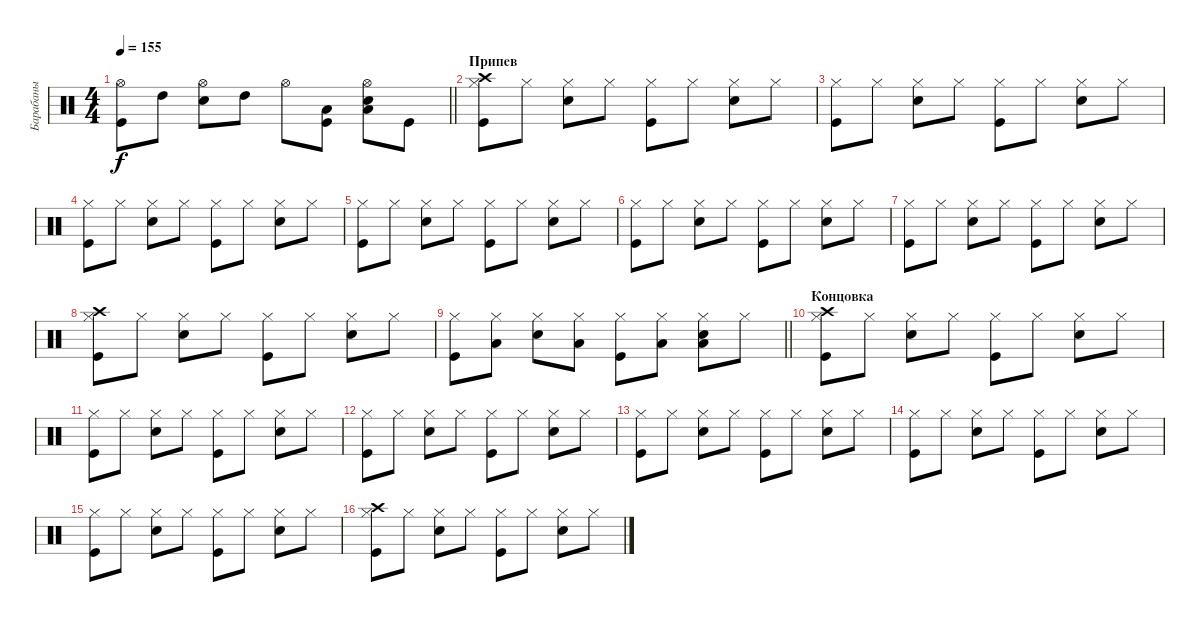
\track ("Барабаны" "Барабаны") {instrument percussion}
\staff {score}
\articulation defaults
\ts (4 4)
\tempo 155
\clef neutral
\barLineRight lightlight
\ks c
("Kick (hit)" "Hi-Hat (open)").8{dy f} "High Tom (hit)".8 ("Snare (hit) 2" "Hi-Hat (open)").8 "High Tom (hit)".8 "Hi-Hat (open)".8 ("Kick (hit)" "Low Tom (hit)").8 ("Snare (hit) 2" "Hi-Hat (open)" "Low Tom (hit)").8 "Kick (hit)".8 |
\section ("" "Припев")
("Kick (hit)" "Hi-Hat (closed)" "Crash high (hit)").8 "Hi-Hat (closed)".8 ("Snare (hit) 2" "Hi-Hat (closed)").8 "Hi-Hat (closed)".8 ("Kick (hit)" "Hi-Hat (closed)").8 "Hi-Hat (closed)".8 ("Snare (hit) 2" "Hi-Hat (closed)").8 "Hi-Hat (closed)".8 |
("Kick (hit)" "Hi-Hat (closed)").8 "Hi-Hat (closed)".8 ("Snare (hit) 2" "Hi-Hat (closed)").8 "Hi-Hat (closed)".8 ("Kick (hit)" "Hi-Hat (closed)").8 "Hi-Hat (closed)".8 ("Snare (hit) 2" "Hi-Hat (closed)").8 "Hi-Hat (closed)".8 |
("Kick (hit)" "Hi-Hat (closed)").8 "Hi-Hat (closed)".8 ("Snare (hit) 2" "Hi-Hat (closed)").8 "Hi-Hat (closed)".8 ("Kick (hit)" "Hi-Hat (closed)").8 "Hi-Hat (closed)".8 ("Snare (hit) 2" "Hi-Hat (closed)").8 "Hi-Hat (closed)".8 |
("Kick (hit)" "Hi-Hat (closed)").8 "Hi-Hat (closed)".8 ("Snare (hit) 2" "Hi-Hat (closed)").8 "Hi-Hat (closed)".8 ("Kick (hit)" "Hi-Hat (closed)").8 "Hi-Hat (closed)".8 ("Snare (hit) 2" "Hi-Hat (closed)").8 "Hi-Hat (closed)".8 |
("Kick (hit)" "Hi-Hat (closed)").8 "Hi-Hat (closed)".8 ("Snare (hit) 2" "Hi-Hat (closed)").8 "Hi-Hat (closed)".8 ("Kick (hit)" "Hi-Hat (closed)").8 "Hi-Hat (closed)".8 ("Snare (hit) 2" "Hi-Hat (closed)").8 "Hi-Hat (closed)".8 |
("Kick (hit)" "Hi-Hat (closed)").8 "Hi-Hat (closed)".8 ("Snare (hit) 2" "Hi-Hat (closed)").8 "Hi-Hat (closed)".8 ("Kick (hit)" "Hi-Hat (closed)").8 "Hi-Hat (closed)".8 ("Snare (hit) 2" "Hi-Hat (closed)").8 "Hi-Hat (closed)".8 |
("Kick (hit)" "Hi-Hat (closed)" "Crash high (hit)").8 "Hi-Hat (closed)".8 ("Snare (hit) 2" "Hi-Hat (closed)").8 "Hi-Hat (closed)".8 ("Kick (hit)" "Hi-Hat (closed)").8 "Hi-Hat (closed)".8 ("Snare (hit) 2" "Hi-Hat (closed)").8 "Hi-Hat (closed)".8 |
\barLineRight lightlight
("Kick (hit)" "Hi-Hat (closed)").8 ("Hi-Hat (closed)" "Low Tom (hit)").8 ("Snare (hit) 2" "Hi-Hat (closed)").8 ("Hi-Hat (closed)" "Low Tom (hit)").8 ("Kick (hit)" "Hi-Hat (closed)").8 ("Hi-Hat (closed)" "Low Tom (hit)").8 ("Snare (hit) 2" "Hi-Hat (closed)" "Low Tom (hit)").8 "Hi-Hat (closed)".8 |
\section ("" "Концовка")
("Kick (hit)" "Hi-Hat (closed)" "Crash high (hit)").8 "Hi-Hat (closed)".8 ("Snare (hit) 2" "Hi-Hat (closed)").8 "Hi-Hat (closed)".8 ("Kick (hit)" "Hi-Hat (closed)").8 "Hi-Hat (closed)".8 ("Snare (hit) 2" "Hi-Hat (closed)").8 "Hi-Hat (closed)".8 |
("Kick (hit)" "Hi-Hat (closed)").8 "Hi-Hat (closed)".8 ("Snare (hit) 2" "Hi-Hat (closed)").8 "Hi-Hat (closed)".8 ("Kick (hit)" "Hi-Hat (closed)").8 "Hi-Hat (closed)".8 ("Snare (hit) 2" "Hi-Hat (closed)").8 "Hi-Hat (closed)".8 |
("Kick (hit)" "Hi-Hat (closed)").8 "Hi-Hat (closed)".8 ("Snare (hit) 2" "Hi-Hat (closed)").8 "Hi-Hat (closed)".8 ("Kick (hit)" "Hi-Hat (closed)").8 "Hi-Hat (closed)".8 ("Snare (hit) 2" "Hi-Hat (closed)").8 "Hi-Hat (closed)".8 |
("Kick (hit)" "Hi-Hat (closed)").8 "Hi-Hat (closed)".8 ("Snare (hit) 2" "Hi-Hat (closed)").8 "Hi-Hat (closed)".8 ("Kick (hit)" "Hi-Hat (closed)").8 "Hi-Hat (closed)".8 ("Snare (hit) 2" "Hi-Hat (closed)").8 "Hi-Hat (closed)".8 |
("Kick (hit)" "Hi-Hat (closed)").8 "Hi-Hat (closed)".8 ("Snare (hit) 2" "Hi-Hat (closed)").8 "Hi-Hat (closed)".8 ("Kick (hit)" "Hi-Hat (closed)").8 "Hi-Hat (closed)".8 ("Snare (hit) 2" "Hi-Hat (closed)").8 "Hi-Hat (closed)".8 |
("Kick (hit)" "Hi-Hat (closed)").8 "Hi-Hat (closed)".8 ("Snare (hit) 2" "Hi-Hat (closed)").8 "Hi-Hat (closed)".8 ("Kick (hit)" "Hi-Hat (closed)").8 "Hi-Hat (closed)".8 ("Snare (hit) 2" "Hi-Hat (closed)").8 "Hi-Hat (closed)".8 |
("Kick (hit)" "Hi-Hat (closed)" "Crash high (hit)").8 "Hi-Hat (closed)".8 ("Snare (hit) 2" "Hi-Hat (closed)").8 "Hi-Hat (closed)".8 ("Kick (hit)" "Hi-Hat (closed)").8 "Hi-Hat (closed)".8 ("Snare (hit) 2" "Hi-Hat (closed)").8 "Hi-Hat (closed)".8
